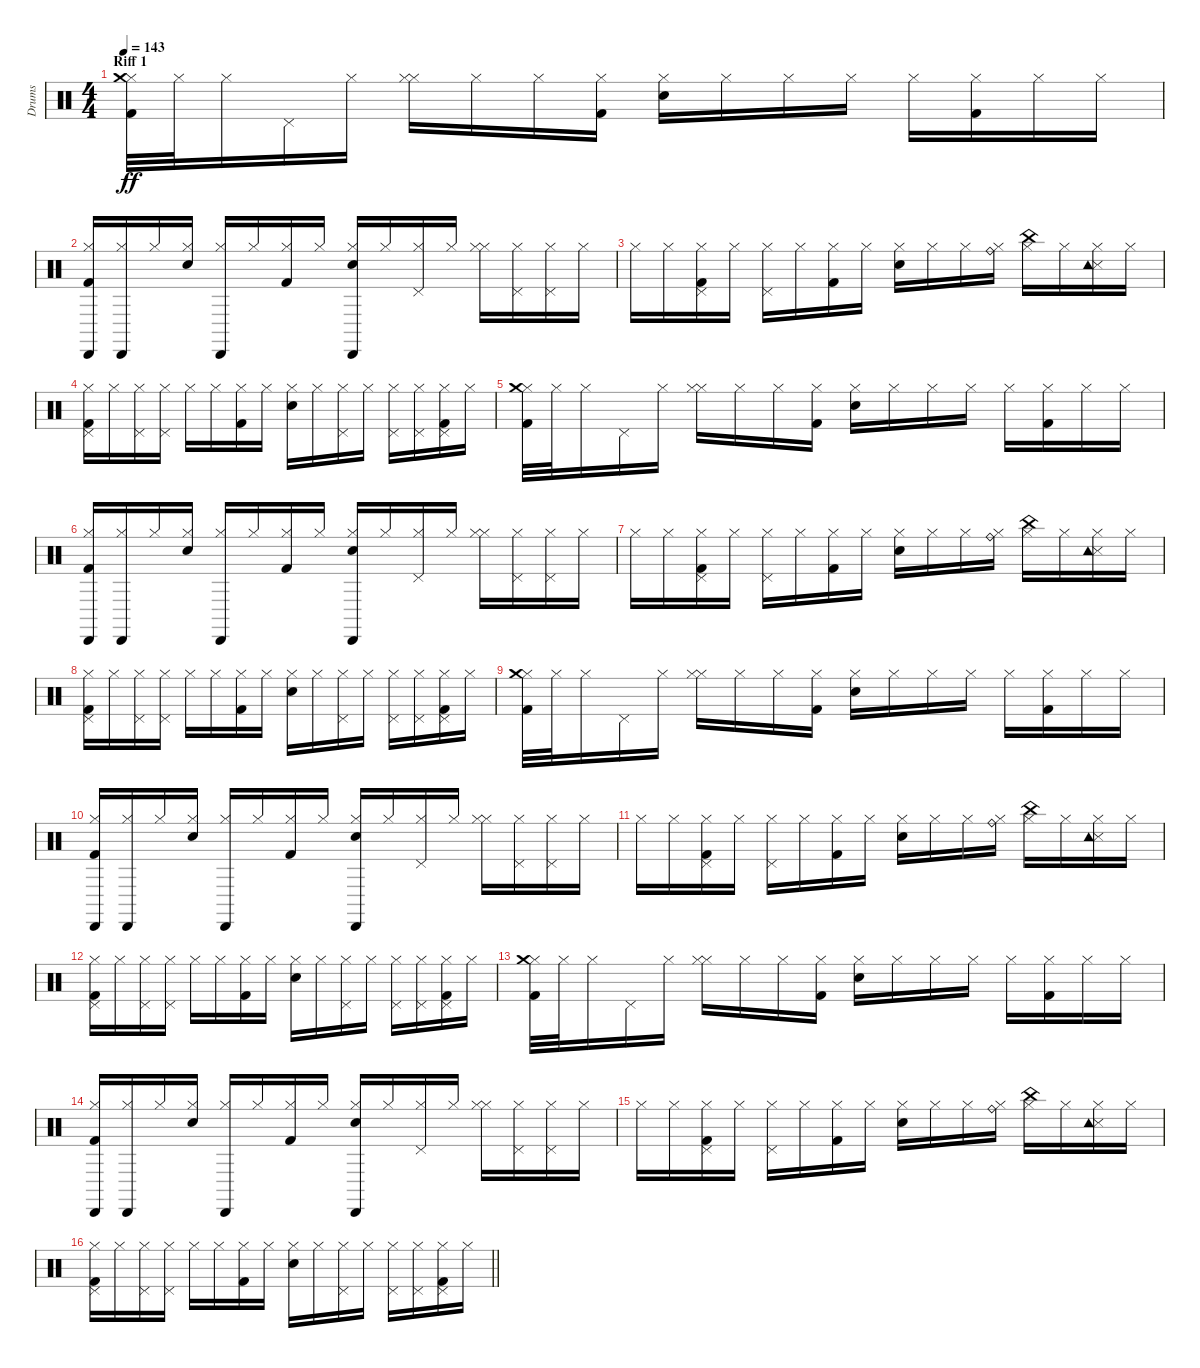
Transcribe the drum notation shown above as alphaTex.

\track ("Drums" "Drums") {instrument percussion}
\staff {score}
\articulation defaults
\ts (4 4)
\section ("" "Riff 1")
\tempo 143
\clef neutral
\ks c
("Kick (hit) 2" "Hi-Hat (closed)" "Crash medium (hit)").32{dy ff} "Hi-Hat (closed)".32 "Hi-Hat (closed)".16 "Pedal Hi-Hat (hit)".16 "Hi-Hat (closed)".16 ("Hi-Hat (closed)" "Hi-Hat (closed)").16 "Hi-Hat (closed)".16 "Hi-Hat (closed)".16 ("Kick (hit) 2" "Hi-Hat (closed)").16 ("Snare (hit) 2" "Hi-Hat (closed)").16 "Hi-Hat (closed)".16 "Hi-Hat (closed)".16 "Hi-Hat (closed)".16 "Hi-Hat (closed)".16 ("Kick (hit) 2" "Hi-Hat (closed)").16 "Hi-Hat (closed)".16 "Hi-Hat (closed)".16 |
("Kick (hit) 2" "Cabasa (hit)" "Hi-Hat (closed)").16 ("Cabasa (hit)" "Hi-Hat (closed)").16 "Hi-Hat (closed)".16 ("Snare (hit) 2" "Hi-Hat (closed)").16 ("Cabasa (hit)" "Hi-Hat (closed)").16 "Hi-Hat (closed)".16 ("Kick (hit) 2" "Hi-Hat (closed)").16 "Hi-Hat (closed)".16 ("Snare (hit) 2" "Cabasa (hit)" "Hi-Hat (closed)").16 "Hi-Hat (closed)".16 ("Pedal Hi-Hat (hit)" "Hi-Hat (closed)").16 "Hi-Hat (closed)".16 ("Hi-Hat (closed)" "Hi-Hat (closed)").16 ("Pedal Hi-Hat (hit)" "Hi-Hat (closed)").16 ("Pedal Hi-Hat (hit)" "Hi-Hat (closed)").16 "Hi-Hat (closed)".16 |
"Hi-Hat (closed)".16 "Hi-Hat (closed)".16 ("Kick (hit) 2" "Pedal Hi-Hat (hit)" "Hi-Hat (closed)").16 "Hi-Hat (closed)".16 ("Hi-Hat (closed)" "Pedal Hi-Hat (hit)").16 "Hi-Hat (closed)".16 ("Kick (hit) 2" "Hi-Hat (closed)").16 "Hi-Hat (closed)".16 ("Snare (hit) 2" "Hi-Hat (closed)").16 "Hi-Hat (closed)".16 "Hi-Hat (closed)".16 ("Ride (bell)" "Hi-Hat (closed)").16 ("China (hit)" "Hi-Hat (closed)").16 "Hi-Hat (closed)".16 ("Snare (side stick) 3" "Tambourine (hit)" "Hi-Hat (closed)").16 "Hi-Hat (closed)".16 |
("Kick (hit) 2" "Hi-Hat (closed)" "Pedal Hi-Hat (hit)").16 "Hi-Hat (closed)".16 ("Hi-Hat (closed)" "Pedal Hi-Hat (hit)").16 ("Hi-Hat (closed)" "Pedal Hi-Hat (hit)").16 "Hi-Hat (closed)".16 "Hi-Hat (closed)".16 ("Kick (hit) 2" "Hi-Hat (closed)").16 "Hi-Hat (closed)".16 ("Snare (hit) 2" "Hi-Hat (closed)").16 "Hi-Hat (closed)".16 ("Hi-Hat (closed)" "Pedal Hi-Hat (hit)").16 "Hi-Hat (closed)".16 ("Hi-Hat (closed)" "Pedal Hi-Hat (hit)").16 ("Hi-Hat (closed)" "Pedal Hi-Hat (hit)").16 ("Kick (hit) 2" "Hi-Hat (closed)" "Pedal Hi-Hat (hit)").16 "Hi-Hat (closed)".16 |
("Kick (hit) 2" "Hi-Hat (closed)" "Crash medium (hit)").32 "Hi-Hat (closed)".32 "Hi-Hat (closed)".16 "Pedal Hi-Hat (hit)".16 "Hi-Hat (closed)".16 ("Hi-Hat (closed)" "Hi-Hat (closed)").16 "Hi-Hat (closed)".16 "Hi-Hat (closed)".16 ("Kick (hit) 2" "Hi-Hat (closed)").16 ("Snare (hit) 2" "Hi-Hat (closed)").16 "Hi-Hat (closed)".16 "Hi-Hat (closed)".16 "Hi-Hat (closed)".16 "Hi-Hat (closed)".16 ("Kick (hit) 2" "Hi-Hat (closed)").16 "Hi-Hat (closed)".16 "Hi-Hat (closed)".16 |
("Kick (hit) 2" "Cabasa (hit)" "Hi-Hat (closed)").16 ("Cabasa (hit)" "Hi-Hat (closed)").16 "Hi-Hat (closed)".16 ("Snare (hit) 2" "Hi-Hat (closed)").16 ("Cabasa (hit)" "Hi-Hat (closed)").16 "Hi-Hat (closed)".16 ("Kick (hit) 2" "Hi-Hat (closed)").16 "Hi-Hat (closed)".16 ("Snare (hit) 2" "Cabasa (hit)" "Hi-Hat (closed)").16 "Hi-Hat (closed)".16 ("Pedal Hi-Hat (hit)" "Hi-Hat (closed)").16 "Hi-Hat (closed)".16 ("Hi-Hat (closed)" "Hi-Hat (closed)").16 ("Pedal Hi-Hat (hit)" "Hi-Hat (closed)").16 ("Pedal Hi-Hat (hit)" "Hi-Hat (closed)").16 "Hi-Hat (closed)".16 |
"Hi-Hat (closed)".16 "Hi-Hat (closed)".16 ("Kick (hit) 2" "Pedal Hi-Hat (hit)" "Hi-Hat (closed)").16 "Hi-Hat (closed)".16 ("Hi-Hat (closed)" "Pedal Hi-Hat (hit)").16 "Hi-Hat (closed)".16 ("Kick (hit) 2" "Hi-Hat (closed)").16 "Hi-Hat (closed)".16 ("Snare (hit) 2" "Hi-Hat (closed)").16 "Hi-Hat (closed)".16 "Hi-Hat (closed)".16 ("Ride (bell)" "Hi-Hat (closed)").16 ("China (hit)" "Hi-Hat (closed)").16 "Hi-Hat (closed)".16 ("Snare (side stick) 3" "Tambourine (hit)" "Hi-Hat (closed)").16 "Hi-Hat (closed)".16 |
("Kick (hit) 2" "Hi-Hat (closed)" "Pedal Hi-Hat (hit)").16 "Hi-Hat (closed)".16 ("Hi-Hat (closed)" "Pedal Hi-Hat (hit)").16 ("Hi-Hat (closed)" "Pedal Hi-Hat (hit)").16 "Hi-Hat (closed)".16 "Hi-Hat (closed)".16 ("Kick (hit) 2" "Hi-Hat (closed)").16 "Hi-Hat (closed)".16 ("Snare (hit) 2" "Hi-Hat (closed)").16 "Hi-Hat (closed)".16 ("Hi-Hat (closed)" "Pedal Hi-Hat (hit)").16 "Hi-Hat (closed)".16 ("Hi-Hat (closed)" "Pedal Hi-Hat (hit)").16 ("Hi-Hat (closed)" "Pedal Hi-Hat (hit)").16 ("Kick (hit) 2" "Hi-Hat (closed)" "Pedal Hi-Hat (hit)").16 "Hi-Hat (closed)".16 |
("Kick (hit) 2" "Hi-Hat (closed)" "Crash medium (hit)").32 "Hi-Hat (closed)".32 "Hi-Hat (closed)".16 "Pedal Hi-Hat (hit)".16 "Hi-Hat (closed)".16 ("Hi-Hat (closed)" "Hi-Hat (closed)").16 "Hi-Hat (closed)".16 "Hi-Hat (closed)".16 ("Kick (hit) 2" "Hi-Hat (closed)").16 ("Snare (hit) 2" "Hi-Hat (closed)").16 "Hi-Hat (closed)".16 "Hi-Hat (closed)".16 "Hi-Hat (closed)".16 "Hi-Hat (closed)".16 ("Kick (hit) 2" "Hi-Hat (closed)").16 "Hi-Hat (closed)".16 "Hi-Hat (closed)".16 |
("Kick (hit) 2" "Cabasa (hit)" "Hi-Hat (closed)").16 ("Cabasa (hit)" "Hi-Hat (closed)").16 "Hi-Hat (closed)".16 ("Snare (hit) 2" "Hi-Hat (closed)").16 ("Cabasa (hit)" "Hi-Hat (closed)").16 "Hi-Hat (closed)".16 ("Kick (hit) 2" "Hi-Hat (closed)").16 "Hi-Hat (closed)".16 ("Snare (hit) 2" "Cabasa (hit)" "Hi-Hat (closed)").16 "Hi-Hat (closed)".16 ("Pedal Hi-Hat (hit)" "Hi-Hat (closed)").16 "Hi-Hat (closed)".16 ("Hi-Hat (closed)" "Hi-Hat (closed)").16 ("Pedal Hi-Hat (hit)" "Hi-Hat (closed)").16 ("Pedal Hi-Hat (hit)" "Hi-Hat (closed)").16 "Hi-Hat (closed)".16 |
"Hi-Hat (closed)".16 "Hi-Hat (closed)".16 ("Kick (hit) 2" "Pedal Hi-Hat (hit)" "Hi-Hat (closed)").16 "Hi-Hat (closed)".16 ("Hi-Hat (closed)" "Pedal Hi-Hat (hit)").16 "Hi-Hat (closed)".16 ("Kick (hit) 2" "Hi-Hat (closed)").16 "Hi-Hat (closed)".16 ("Snare (hit) 2" "Hi-Hat (closed)").16 "Hi-Hat (closed)".16 "Hi-Hat (closed)".16 ("Ride (bell)" "Hi-Hat (closed)").16 ("China (hit)" "Hi-Hat (closed)").16 "Hi-Hat (closed)".16 ("Snare (side stick) 3" "Tambourine (hit)" "Hi-Hat (closed)").16 "Hi-Hat (closed)".16 |
("Kick (hit) 2" "Hi-Hat (closed)" "Pedal Hi-Hat (hit)").16 "Hi-Hat (closed)".16 ("Hi-Hat (closed)" "Pedal Hi-Hat (hit)").16 ("Hi-Hat (closed)" "Pedal Hi-Hat (hit)").16 "Hi-Hat (closed)".16 "Hi-Hat (closed)".16 ("Kick (hit) 2" "Hi-Hat (closed)").16 "Hi-Hat (closed)".16 ("Snare (hit) 2" "Hi-Hat (closed)").16 "Hi-Hat (closed)".16 ("Hi-Hat (closed)" "Pedal Hi-Hat (hit)").16 "Hi-Hat (closed)".16 ("Hi-Hat (closed)" "Pedal Hi-Hat (hit)").16 ("Hi-Hat (closed)" "Pedal Hi-Hat (hit)").16 ("Kick (hit) 2" "Hi-Hat (closed)" "Pedal Hi-Hat (hit)").16 "Hi-Hat (closed)".16 |
("Kick (hit) 2" "Hi-Hat (closed)" "Crash medium (hit)").32 "Hi-Hat (closed)".32 "Hi-Hat (closed)".16 "Pedal Hi-Hat (hit)".16 "Hi-Hat (closed)".16 ("Hi-Hat (closed)" "Hi-Hat (closed)").16 "Hi-Hat (closed)".16 "Hi-Hat (closed)".16 ("Kick (hit) 2" "Hi-Hat (closed)").16 ("Snare (hit) 2" "Hi-Hat (closed)").16 "Hi-Hat (closed)".16 "Hi-Hat (closed)".16 "Hi-Hat (closed)".16 "Hi-Hat (closed)".16 ("Kick (hit) 2" "Hi-Hat (closed)").16 "Hi-Hat (closed)".16 "Hi-Hat (closed)".16 |
("Kick (hit) 2" "Cabasa (hit)" "Hi-Hat (closed)").16 ("Cabasa (hit)" "Hi-Hat (closed)").16 "Hi-Hat (closed)".16 ("Snare (hit) 2" "Hi-Hat (closed)").16 ("Cabasa (hit)" "Hi-Hat (closed)").16 "Hi-Hat (closed)".16 ("Kick (hit) 2" "Hi-Hat (closed)").16 "Hi-Hat (closed)".16 ("Snare (hit) 2" "Cabasa (hit)" "Hi-Hat (closed)").16 "Hi-Hat (closed)".16 ("Pedal Hi-Hat (hit)" "Hi-Hat (closed)").16 "Hi-Hat (closed)".16 ("Hi-Hat (closed)" "Hi-Hat (closed)").16 ("Pedal Hi-Hat (hit)" "Hi-Hat (closed)").16 ("Pedal Hi-Hat (hit)" "Hi-Hat (closed)").16 "Hi-Hat (closed)".16 |
"Hi-Hat (closed)".16 "Hi-Hat (closed)".16 ("Kick (hit) 2" "Pedal Hi-Hat (hit)" "Hi-Hat (closed)").16 "Hi-Hat (closed)".16 ("Hi-Hat (closed)" "Pedal Hi-Hat (hit)").16 "Hi-Hat (closed)".16 ("Kick (hit) 2" "Hi-Hat (closed)").16 "Hi-Hat (closed)".16 ("Snare (hit) 2" "Hi-Hat (closed)").16 "Hi-Hat (closed)".16 "Hi-Hat (closed)".16 ("Ride (bell)" "Hi-Hat (closed)").16 ("China (hit)" "Hi-Hat (closed)").16 "Hi-Hat (closed)".16 ("Snare (side stick) 3" "Tambourine (hit)" "Hi-Hat (closed)").16 "Hi-Hat (closed)".16 |
\barLineRight lightlight
("Kick (hit) 2" "Hi-Hat (closed)" "Pedal Hi-Hat (hit)").16 "Hi-Hat (closed)".16 ("Hi-Hat (closed)" "Pedal Hi-Hat (hit)").16 ("Hi-Hat (closed)" "Pedal Hi-Hat (hit)").16 "Hi-Hat (closed)".16 "Hi-Hat (closed)".16 ("Kick (hit) 2" "Hi-Hat (closed)").16 "Hi-Hat (closed)".16 ("Snare (hit) 2" "Hi-Hat (closed)").16 "Hi-Hat (closed)".16 ("Hi-Hat (closed)" "Pedal Hi-Hat (hit)").16 "Hi-Hat (closed)".16 ("Hi-Hat (closed)" "Pedal Hi-Hat (hit)").16 ("Hi-Hat (closed)" "Pedal Hi-Hat (hit)").16 ("Kick (hit) 2" "Hi-Hat (closed)" "Pedal Hi-Hat (hit)").16 "Hi-Hat (closed)".16
